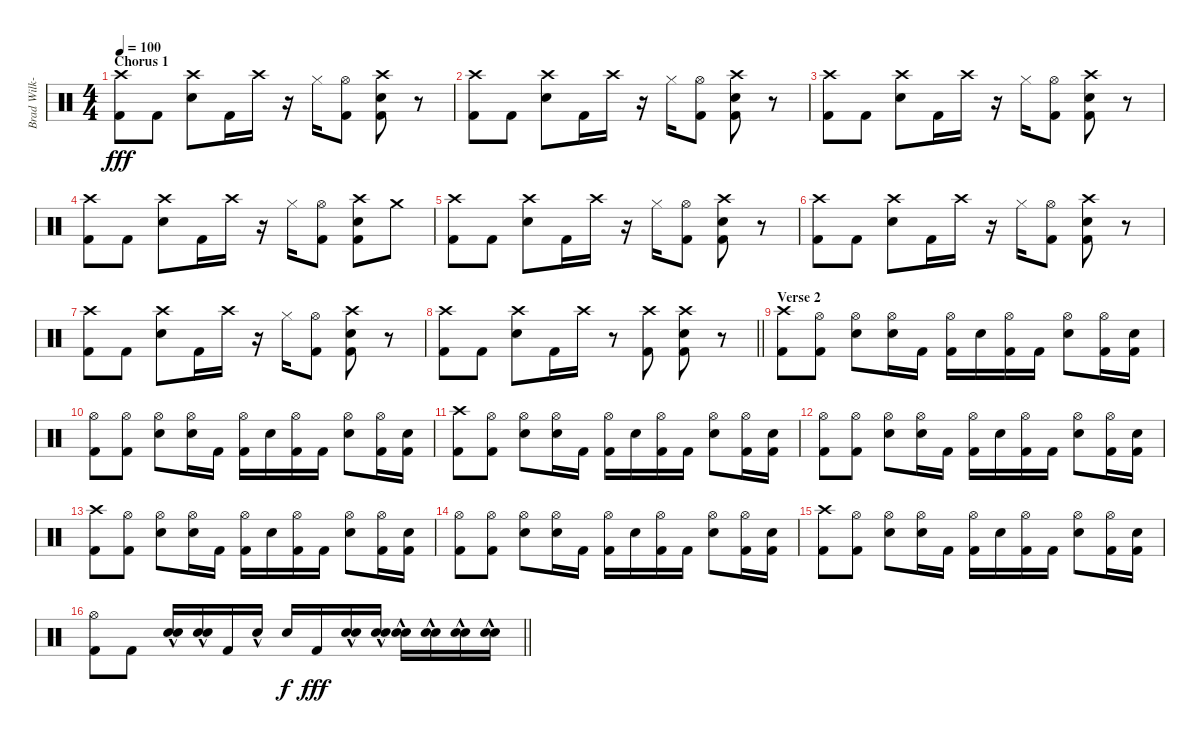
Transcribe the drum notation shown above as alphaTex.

\track ("Brad Wilk-Drums" "Brad Wilk-") {instrument percussion}
\staff {score}
\articulation defaults
\ts (4 4)
\section ("" "Chorus 1")
\tempo 100
\clef neutral
\ks c
("Crash high (hit)" "Kick (hit) 2").8{dy fff} "Kick (hit) 2".8 ("Crash high (hit)" "Electric Snare (hit)").8 "Kick (hit) 2".16 "Crash high (hit)".16 r.16 "Hi-Hat (closed)".16 ("Hi-Hat (open)" "Kick (hit) 2").8 ("Crash high (hit)" "Electric Snare (hit)" "Kick (hit) 2").8 r.8 |
("Crash high (hit)" "Kick (hit) 2").8 "Kick (hit) 2".8 ("Crash high (hit)" "Electric Snare (hit)").8 "Kick (hit) 2".16 "Crash high (hit)".16 r.16 "Hi-Hat (closed)".16 ("Hi-Hat (open)" "Kick (hit) 2").8 ("Crash high (hit)" "Electric Snare (hit)" "Kick (hit) 2").8 r.8 |
("Crash high (hit)" "Kick (hit) 2").8 "Kick (hit) 2".8 ("Crash high (hit)" "Electric Snare (hit)").8 "Kick (hit) 2".16 "Crash high (hit)".16 r.16 "Hi-Hat (closed)".16 ("Hi-Hat (open)" "Kick (hit) 2").8 ("Crash high (hit)" "Electric Snare (hit)" "Kick (hit) 2").8 r.8 |
("Crash high (hit)" "Kick (hit) 2").8 "Kick (hit) 2".8 ("Crash high (hit)" "Electric Snare (hit)").8 "Kick (hit) 2".16 "Crash high (hit)".16 r.16 "Hi-Hat (closed)".16 ("Hi-Hat (open)" "Kick (hit) 2").8 ("Crash high (hit)" "Electric Snare (hit)" "Kick (hit) 2").8 "Crash medium (hit)".8 |
("Crash high (hit)" "Kick (hit) 2").8 "Kick (hit) 2".8 ("Crash high (hit)" "Electric Snare (hit)").8 "Kick (hit) 2".16 "Crash high (hit)".16 r.16 "Hi-Hat (closed)".16 ("Hi-Hat (open)" "Kick (hit) 2").8 ("Crash high (hit)" "Electric Snare (hit)" "Kick (hit) 2").8 r.8 |
("Crash high (hit)" "Kick (hit) 2").8 "Kick (hit) 2".8 ("Crash high (hit)" "Electric Snare (hit)").8 "Kick (hit) 2".16 "Crash high (hit)".16 r.16 "Hi-Hat (closed)".16 ("Hi-Hat (open)" "Kick (hit) 2").8 ("Crash high (hit)" "Electric Snare (hit)" "Kick (hit) 2").8 r.8 |
("Crash high (hit)" "Kick (hit) 2").8 "Kick (hit) 2".8 ("Crash high (hit)" "Electric Snare (hit)").8 "Kick (hit) 2".16 "Crash high (hit)".16 r.16 "Hi-Hat (closed)".16 ("Hi-Hat (open)" "Kick (hit) 2").8 ("Crash high (hit)" "Electric Snare (hit)" "Kick (hit) 2").8 r.8 |
\barLineRight lightlight
("Crash high (hit)" "Kick (hit) 2").8 "Kick (hit) 2".8 ("Crash high (hit)" "Electric Snare (hit)").8 "Kick (hit) 2".16 "Crash high (hit)".16 r.8 ("Crash high (hit)" "Kick (hit) 2").8 ("Crash high (hit)" "Electric Snare (hit)" "Kick (hit) 2").8 r.8 |
\section ("" "Verse 2")
("Crash high (hit)" "Kick (hit) 2").8 ("Hi-Hat (open)" "Kick (hit) 2").8 ("Hi-Hat (open)" "Electric Snare (hit)").8 ("Hi-Hat (open)" "Electric Snare (hit)").16 "Kick (hit) 2".16 ("Hi-Hat (open)" "Kick (hit) 2").16 "Electric Snare (hit)".16 ("Hi-Hat (open)" "Kick (hit) 2").16 "Kick (hit) 2".16 ("Hi-Hat (open)" "Electric Snare (hit)").8 ("Hi-Hat (open)" "Kick (hit) 2").16 ("Electric Snare (hit)" "Kick (hit) 2").16 |
("Hi-Hat (open)" "Kick (hit) 2").8 ("Hi-Hat (open)" "Kick (hit) 2").8 ("Hi-Hat (open)" "Electric Snare (hit)").8 ("Hi-Hat (open)" "Electric Snare (hit)").16 "Kick (hit) 2".16 ("Hi-Hat (open)" "Kick (hit) 2").16 "Electric Snare (hit)".16 ("Hi-Hat (open)" "Kick (hit) 2").16 "Kick (hit) 2".16 ("Hi-Hat (open)" "Electric Snare (hit)").8 ("Hi-Hat (open)" "Kick (hit) 2").16 ("Electric Snare (hit)" "Kick (hit) 2").16 |
("Crash high (hit)" "Kick (hit) 2").8 ("Hi-Hat (open)" "Kick (hit) 2").8 ("Hi-Hat (open)" "Electric Snare (hit)").8 ("Hi-Hat (open)" "Electric Snare (hit)").16 "Kick (hit) 2".16 ("Hi-Hat (open)" "Kick (hit) 2").16 "Electric Snare (hit)".16 ("Hi-Hat (open)" "Kick (hit) 2").16 "Kick (hit) 2".16 ("Hi-Hat (open)" "Electric Snare (hit)").8 ("Hi-Hat (open)" "Kick (hit) 2").16 ("Electric Snare (hit)" "Kick (hit) 2").16 |
("Hi-Hat (open)" "Kick (hit) 2").8 ("Hi-Hat (open)" "Kick (hit) 2").8 ("Hi-Hat (open)" "Electric Snare (hit)").8 ("Hi-Hat (open)" "Electric Snare (hit)").16 "Kick (hit) 2".16 ("Hi-Hat (open)" "Kick (hit) 2").16 "Electric Snare (hit)".16 ("Hi-Hat (open)" "Kick (hit) 2").16 "Kick (hit) 2".16 ("Hi-Hat (open)" "Electric Snare (hit)").8 ("Hi-Hat (open)" "Kick (hit) 2").16 ("Electric Snare (hit)" "Kick (hit) 2").16 |
("Crash high (hit)" "Kick (hit) 2").8 ("Hi-Hat (open)" "Kick (hit) 2").8 ("Hi-Hat (open)" "Electric Snare (hit)").8 ("Hi-Hat (open)" "Electric Snare (hit)").16 "Kick (hit) 2".16 ("Hi-Hat (open)" "Kick (hit) 2").16 "Electric Snare (hit)".16 ("Hi-Hat (open)" "Kick (hit) 2").16 "Kick (hit) 2".16 ("Hi-Hat (open)" "Electric Snare (hit)").8 ("Hi-Hat (open)" "Kick (hit) 2").16 ("Electric Snare (hit)" "Kick (hit) 2").16 |
("Hi-Hat (open)" "Kick (hit) 2").8 ("Hi-Hat (open)" "Kick (hit) 2").8 ("Hi-Hat (open)" "Electric Snare (hit)").8 ("Hi-Hat (open)" "Electric Snare (hit)").16 "Kick (hit) 2".16 ("Hi-Hat (open)" "Kick (hit) 2").16 "Electric Snare (hit)".16 ("Hi-Hat (open)" "Kick (hit) 2").16 "Kick (hit) 2".16 ("Hi-Hat (open)" "Electric Snare (hit)").8 ("Hi-Hat (open)" "Kick (hit) 2").16 ("Electric Snare (hit)" "Kick (hit) 2").16 |
("Crash high (hit)" "Kick (hit) 2").8 ("Hi-Hat (open)" "Kick (hit) 2").8 ("Hi-Hat (open)" "Electric Snare (hit)").8 ("Hi-Hat (open)" "Electric Snare (hit)").16 "Kick (hit) 2".16 ("Hi-Hat (open)" "Kick (hit) 2").16 "Electric Snare (hit)".16 ("Hi-Hat (open)" "Kick (hit) 2").16 "Kick (hit) 2".16 ("Hi-Hat (open)" "Electric Snare (hit)").8 ("Hi-Hat (open)" "Kick (hit) 2").16 ("Electric Snare (hit)" "Kick (hit) 2").16 |
\barLineRight lightlight
("Hi-Hat (open)" "Kick (hit) 2").8 "Kick (hit) 2".8 ("Electric Snare (hit)"{hac} "Snare (hit) 2").16 ("Electric Snare (hit)"{hac} "Snare (hit) 2").16 "Kick (hit) 2".16 "Electric Snare (hit)"{hac}.16 "Electric Snare (hit)".16{dy f} "Kick (hit) 2".16{dy fff} ("Electric Snare (hit)"{hac} "Snare (hit) 2"{hac}).16 ("Electric Snare (hit)" "Snare (hit) 2"{hac}).16 ("Electric Snare (hit)"{hac} "Snare (hit) 2"{hac}).16 ("Electric Snare (hit)"{hac} "Snare (hit) 2"{hac}).16 ("Electric Snare (hit)"{hac} "Snare (hit) 2"{hac}).16 ("Electric Snare (hit)"{hac} "Snare (hit) 2"{hac}).16
